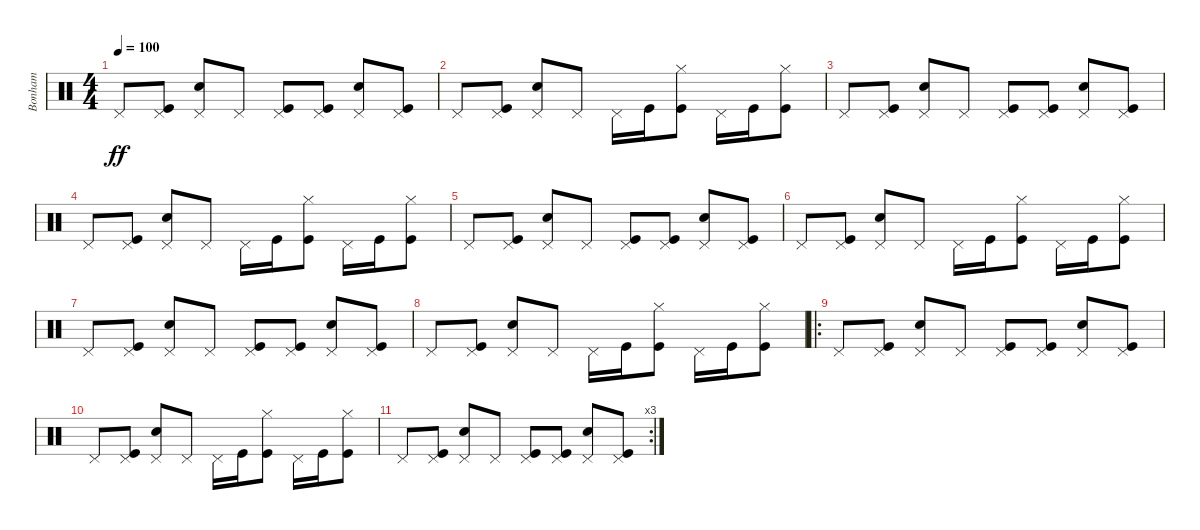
\track ("Bonham" "Bonham") {instrument percussion}
\staff {score}
\articulation defaults
\ts (4 4)
\tempo 100
\clef neutral
\ks c "Pedal Hi-Hat (hit)".8{dy ff}
("Kick (hit)" "Pedal Hi-Hat (hit)").8 ("Snare (hit) 2" "Pedal Hi-Hat (hit)").8 "Pedal Hi-Hat (hit)".8 ("Kick (hit)" "Pedal Hi-Hat (hit)").8 ("Kick (hit)" "Pedal Hi-Hat (hit)").8 ("Snare (hit) 2" "Pedal Hi-Hat (hit)").8 ("Kick (hit)" "Pedal Hi-Hat (hit)").8 |
"Pedal Hi-Hat (hit)".8 ("Kick (hit)" "Pedal Hi-Hat (hit)").8 ("Snare (hit) 2" "Pedal Hi-Hat (hit)").8 "Pedal Hi-Hat (hit)".8 "Pedal Hi-Hat (hit)".16 "Kick (hit)".16 ("Kick (hit)" "Hi-Hat (closed)").8 "Pedal Hi-Hat (hit)".16 "Kick (hit)".16 ("Kick (hit)" "Hi-Hat (closed)").8 |
"Pedal Hi-Hat (hit)".8 ("Kick (hit)" "Pedal Hi-Hat (hit)").8 ("Snare (hit) 2" "Pedal Hi-Hat (hit)").8 "Pedal Hi-Hat (hit)".8 ("Kick (hit)" "Pedal Hi-Hat (hit)").8 ("Kick (hit)" "Pedal Hi-Hat (hit)").8 ("Snare (hit) 2" "Pedal Hi-Hat (hit)").8 ("Kick (hit)" "Pedal Hi-Hat (hit)").8 |
"Pedal Hi-Hat (hit)".8 ("Kick (hit)" "Pedal Hi-Hat (hit)").8 ("Snare (hit) 2" "Pedal Hi-Hat (hit)").8 "Pedal Hi-Hat (hit)".8 "Pedal Hi-Hat (hit)".16 "Kick (hit)".16 ("Kick (hit)" "Hi-Hat (closed)").8 "Pedal Hi-Hat (hit)".16 "Kick (hit)".16 ("Kick (hit)" "Hi-Hat (closed)").8 |
"Pedal Hi-Hat (hit)".8 ("Kick (hit)" "Pedal Hi-Hat (hit)").8 ("Snare (hit) 2" "Pedal Hi-Hat (hit)").8 "Pedal Hi-Hat (hit)".8 ("Kick (hit)" "Pedal Hi-Hat (hit)").8 ("Kick (hit)" "Pedal Hi-Hat (hit)").8 ("Snare (hit) 2" "Pedal Hi-Hat (hit)").8 ("Kick (hit)" "Pedal Hi-Hat (hit)").8 |
"Pedal Hi-Hat (hit)".8 ("Kick (hit)" "Pedal Hi-Hat (hit)").8 ("Snare (hit) 2" "Pedal Hi-Hat (hit)").8 "Pedal Hi-Hat (hit)".8 "Pedal Hi-Hat (hit)".16 "Kick (hit)".16 ("Kick (hit)" "Hi-Hat (closed)").8 "Pedal Hi-Hat (hit)".16 "Kick (hit)".16 ("Kick (hit)" "Hi-Hat (closed)").8 |
"Pedal Hi-Hat (hit)".8 ("Kick (hit)" "Pedal Hi-Hat (hit)").8 ("Snare (hit) 2" "Pedal Hi-Hat (hit)").8 "Pedal Hi-Hat (hit)".8 ("Kick (hit)" "Pedal Hi-Hat (hit)").8 ("Kick (hit)" "Pedal Hi-Hat (hit)").8 ("Snare (hit) 2" "Pedal Hi-Hat (hit)").8 ("Kick (hit)" "Pedal Hi-Hat (hit)").8 |
"Pedal Hi-Hat (hit)".8 ("Kick (hit)" "Pedal Hi-Hat (hit)").8 ("Snare (hit) 2" "Pedal Hi-Hat (hit)").8 "Pedal Hi-Hat (hit)".8 "Pedal Hi-Hat (hit)".16 "Kick (hit)".16 ("Kick (hit)" "Hi-Hat (closed)").8 "Pedal Hi-Hat (hit)".16 "Kick (hit)".16 ("Kick (hit)" "Hi-Hat (closed)").8 |
\ro "Pedal Hi-Hat (hit)".8
("Kick (hit)" "Pedal Hi-Hat (hit)").8 ("Snare (hit) 2" "Pedal Hi-Hat (hit)").8 "Pedal Hi-Hat (hit)".8 ("Kick (hit)" "Pedal Hi-Hat (hit)").8 ("Kick (hit)" "Pedal Hi-Hat (hit)").8 ("Snare (hit) 2" "Pedal Hi-Hat (hit)").8 ("Kick (hit)" "Pedal Hi-Hat (hit)").8 |
"Pedal Hi-Hat (hit)".8 ("Kick (hit)" "Pedal Hi-Hat (hit)").8 ("Snare (hit) 2" "Pedal Hi-Hat (hit)").8 "Pedal Hi-Hat (hit)".8 "Pedal Hi-Hat (hit)".16 "Kick (hit)".16 ("Kick (hit)" "Hi-Hat (closed)").8 "Pedal Hi-Hat (hit)".16 "Kick (hit)".16 ("Kick (hit)" "Hi-Hat (closed)").8 |
\rc 3 "Pedal Hi-Hat (hit)".8
("Kick (hit)" "Pedal Hi-Hat (hit)").8 ("Snare (hit) 2" "Pedal Hi-Hat (hit)").8 "Pedal Hi-Hat (hit)".8 ("Kick (hit)" "Pedal Hi-Hat (hit)").8 ("Kick (hit)" "Pedal Hi-Hat (hit)").8 ("Snare (hit) 2" "Pedal Hi-Hat (hit)").8 ("Kick (hit)" "Pedal Hi-Hat (hit)").8
